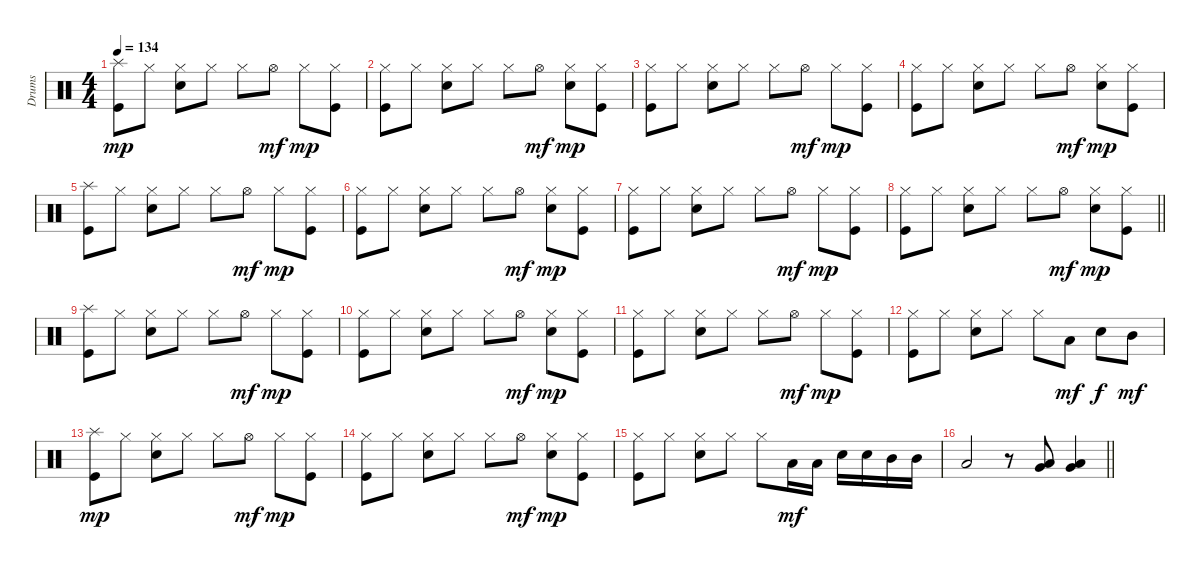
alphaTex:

\track ("Drums" "Drums") {instrument percussion}
\staff {score}
\articulation defaults
\ts (4 4)
\tempo 134
\clef neutral
\ks c
("Splash (hit)" "Kick (hit)").8{dy mp} "Hi-Hat (closed)".8 ("Hi-Hat (closed)" "Snare (hit) 2").8 "Hi-Hat (closed)".8 "Hi-Hat (closed)".8 "Hi-Hat (open)".8{dy mf} "Hi-Hat (closed)".8{dy mp} ("Hi-Hat (closed)" "Kick (hit)").8 |
("Hi-Hat (closed)" "Kick (hit)").8 "Hi-Hat (closed)".8 ("Hi-Hat (closed)" "Snare (hit) 2").8 "Hi-Hat (closed)".8 "Hi-Hat (closed)".8 "Hi-Hat (open)".8{dy mf} ("Hi-Hat (closed)" "Snare (hit) 2").8{dy mp} ("Hi-Hat (closed)" "Kick (hit)").8 |
("Hi-Hat (closed)" "Kick (hit)").8 "Hi-Hat (closed)".8 ("Hi-Hat (closed)" "Snare (hit) 2").8 "Hi-Hat (closed)".8 "Hi-Hat (closed)".8 "Hi-Hat (open)".8{dy mf} "Hi-Hat (closed)".8{dy mp} ("Hi-Hat (closed)" "Kick (hit)").8 |
("Hi-Hat (closed)" "Kick (hit)").8 "Hi-Hat (closed)".8 ("Hi-Hat (closed)" "Snare (hit) 2").8 "Hi-Hat (closed)".8 "Hi-Hat (closed)".8 "Hi-Hat (open)".8{dy mf} ("Hi-Hat (closed)" "Snare (hit) 2").8{dy mp} ("Hi-Hat (closed)" "Kick (hit)").8 |
("Splash (hit)" "Kick (hit)").8 "Hi-Hat (closed)".8 ("Hi-Hat (closed)" "Snare (hit) 2").8 "Hi-Hat (closed)".8 "Hi-Hat (closed)".8 "Hi-Hat (open)".8{dy mf} "Hi-Hat (closed)".8{dy mp} ("Hi-Hat (closed)" "Kick (hit)").8 |
("Hi-Hat (closed)" "Kick (hit)").8 "Hi-Hat (closed)".8 ("Hi-Hat (closed)" "Snare (hit) 2").8 "Hi-Hat (closed)".8 "Hi-Hat (closed)".8 "Hi-Hat (open)".8{dy mf} ("Hi-Hat (closed)" "Snare (hit) 2").8{dy mp} ("Hi-Hat (closed)" "Kick (hit)").8 |
("Hi-Hat (closed)" "Kick (hit)").8 "Hi-Hat (closed)".8 ("Hi-Hat (closed)" "Snare (hit) 2").8 "Hi-Hat (closed)".8 "Hi-Hat (closed)".8 "Hi-Hat (open)".8{dy mf} "Hi-Hat (closed)".8{dy mp} ("Hi-Hat (closed)" "Kick (hit)").8 |
\barLineRight lightlight
("Hi-Hat (closed)" "Kick (hit)").8 "Hi-Hat (closed)".8 ("Hi-Hat (closed)" "Snare (hit) 2").8 "Hi-Hat (closed)".8 "Hi-Hat (closed)".8 "Hi-Hat (open)".8{dy mf} ("Hi-Hat (closed)" "Snare (hit) 2").8{dy mp} ("Hi-Hat (closed)" "Kick (hit)").8 |
("Splash (hit)" "Kick (hit)").8 "Hi-Hat (closed)".8 ("Hi-Hat (closed)" "Snare (hit) 2").8 "Hi-Hat (closed)".8 "Hi-Hat (closed)".8 "Hi-Hat (open)".8{dy mf} "Hi-Hat (closed)".8{dy mp} ("Hi-Hat (closed)" "Kick (hit)").8 |
("Hi-Hat (closed)" "Kick (hit)").8 "Hi-Hat (closed)".8 ("Hi-Hat (closed)" "Snare (hit) 2").8 "Hi-Hat (closed)".8 "Hi-Hat (closed)".8 "Hi-Hat (open)".8{dy mf} ("Hi-Hat (closed)" "Snare (hit) 2").8{dy mp} ("Hi-Hat (closed)" "Kick (hit)").8 |
("Hi-Hat (closed)" "Kick (hit)").8 "Hi-Hat (closed)".8 ("Hi-Hat (closed)" "Snare (hit) 2").8 "Hi-Hat (closed)".8 "Hi-Hat (closed)".8 "Hi-Hat (open)".8{dy mf} "Hi-Hat (closed)".8{dy mp} ("Hi-Hat (closed)" "Kick (hit)").8 |
("Hi-Hat (closed)" "Kick (hit)").8 "Hi-Hat (closed)".8 ("Hi-Hat (closed)" "Snare (hit) 2").8 "Hi-Hat (closed)".8 "Hi-Hat (closed)".8 "Low Tom (hit)".8{dy mf} "Snare (hit) 2".8{dy f} "Mid Tom (hit)".8{dy mf} |
("Splash (hit)" "Kick (hit)").8{dy mp} "Hi-Hat (closed)".8 ("Hi-Hat (closed)" "Snare (hit) 2").8 "Hi-Hat (closed)".8 "Hi-Hat (closed)".8 "Hi-Hat (open)".8{dy mf} "Hi-Hat (closed)".8{dy mp} ("Hi-Hat (closed)" "Kick (hit)").8 |
("Hi-Hat (closed)" "Kick (hit)").8 "Hi-Hat (closed)".8 ("Hi-Hat (closed)" "Snare (hit) 2").8 "Hi-Hat (closed)".8 "Hi-Hat (closed)".8 "Hi-Hat (open)".8{dy mf} ("Hi-Hat (closed)" "Snare (hit) 2").8{dy mp} ("Hi-Hat (closed)" "Kick (hit)").8 |
("Hi-Hat (closed)" "Kick (hit)").8 "Hi-Hat (closed)".8 ("Hi-Hat (closed)" "Snare (hit) 2").8 "Hi-Hat (closed)".8 "Hi-Hat (closed)".8 "Low Tom (hit)".16{dy mf} "Low Tom (hit)".16 "Snare (hit) 2".16 "Snare (hit) 2".16 "Mid Tom (hit)".16 "Mid Tom (hit)".16 |
\barLineRight lightlight "Low Tom (hit)".2
r.8 ("Very Low Tom (hit)" "Low Tom (hit)").8 ("Very Low Tom (hit)" "Low Tom (hit)").4
